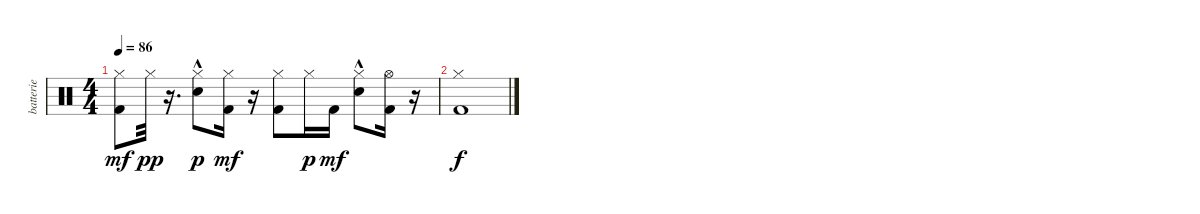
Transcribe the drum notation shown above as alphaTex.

\track ("batterie" "batterie") {instrument percussion}
\staff {score}
\articulation defaults
\ts (4 4)
\tempo 86
\clef neutral
\ks c
("Hi-Hat (closed)" "Kick (hit) 2").8{dy mf} "Hi-Hat (closed)".32{dy pp} r.16{d} ("Hi-Hat (closed)" "Snare (hit) 2"{hac}).8{dy p} ("Hi-Hat (closed)" "Kick (hit) 2").16{dy mf} r.16 ("Hi-Hat (closed)" "Kick (hit) 2").8 "Hi-Hat (closed)".16{dy p} "Kick (hit) 2".16{dy mf} ("Hi-Hat (closed)" "Snare (hit) 2"{hac}).8 ("Hi-Hat (open)" "Kick (hit) 2").16 r.16 |
("Hi-Hat (closed)" "Kick (hit) 2").1{dy f}
